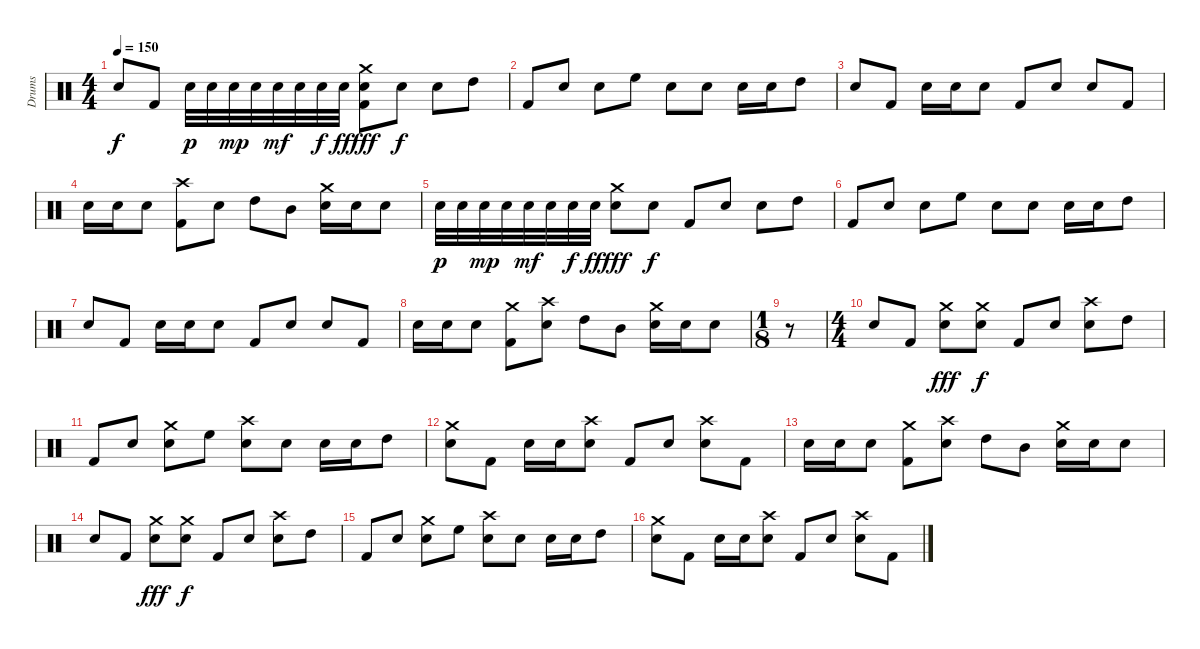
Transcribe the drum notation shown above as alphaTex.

\track ("Drums" "Drums") {instrument percussion}
\staff {score}
\articulation defaults
\ts (4 4)
\tempo 150
\clef neutral
\ks c "Electric Snare (hit)".8{dy f} "Kick (hit) 2".8 "Electric Snare (hit)".32{dy p} "Electric Snare (hit)".32 "Electric Snare (hit)".32{dy mp} "Electric Snare (hit)".32 "Electric Snare (hit)".32{dy mf} "Electric Snare (hit)".32 "Electric Snare (hit)".32{dy f} "Electric Snare (hit)".32{dy ff}
("Crash medium (hit)" "Electric Snare (hit)" "Kick (hit) 2").8{dy fff} "Electric Snare (hit)".8{dy f} "Electric Snare (hit)".8 "High Tom (hit)".8 |
"Kick (hit) 2".8 "Electric Snare (hit)".8 "Electric Snare (hit)".8 "High Floor Tom (hit)".8 "Electric Snare (hit)".8 "Electric Snare (hit)".8 "Electric Snare (hit)".16 "Electric Snare (hit)".16 "High Tom (hit)".8 |
"Electric Snare (hit)".8 "Kick (hit) 2".8 "Electric Snare (hit)".16 "Electric Snare (hit)".16 "Electric Snare (hit)".8 "Kick (hit) 2".8 "Electric Snare (hit)".8 "Electric Snare (hit)".8 "Kick (hit) 2".8 |
"Electric Snare (hit)".16 "Electric Snare (hit)".16 "Electric Snare (hit)".8 ("Crash high (hit)" "Kick (hit) 2").8 "Electric Snare (hit)".8 "High Tom (hit)".8 "Mid Tom (hit)".8 ("Crash medium (hit)" "Electric Snare (hit)").16 "Electric Snare (hit)".16 "Electric Snare (hit)".8 |
"Electric Snare (hit)".32{dy p} "Electric Snare (hit)".32 "Electric Snare (hit)".32{dy mp} "Electric Snare (hit)".32 "Electric Snare (hit)".32{dy mf} "Electric Snare (hit)".32 "Electric Snare (hit)".32{dy f} "Electric Snare (hit)".32{dy ff} ("Crash medium (hit)" "Electric Snare (hit)").8{dy fff} "Electric Snare (hit)".8{dy f} "Kick (hit) 2".8 "Electric Snare (hit)".8 "Electric Snare (hit)".8 "High Tom (hit)".8 |
"Kick (hit) 2".8 "Electric Snare (hit)".8 "Electric Snare (hit)".8 "High Floor Tom (hit)".8 "Electric Snare (hit)".8 "Electric Snare (hit)".8 "Electric Snare (hit)".16 "Electric Snare (hit)".16 "High Tom (hit)".8 |
"Electric Snare (hit)".8 "Kick (hit) 2".8 "Electric Snare (hit)".16 "Electric Snare (hit)".16 "Electric Snare (hit)".8 "Kick (hit) 2".8 "Electric Snare (hit)".8 "Electric Snare (hit)".8 "Kick (hit) 2".8 |
"Electric Snare (hit)".16 "Electric Snare (hit)".16 "Electric Snare (hit)".8 ("Crash medium (hit)" "Kick (hit) 2").8 ("Crash high (hit)" "Electric Snare (hit)").8 "High Tom (hit)".8 "Mid Tom (hit)".8 ("Crash medium (hit)" "Electric Snare (hit)").16 "Electric Snare (hit)".16 "Electric Snare (hit)".8 |
\ts (1 8)
r.8 |
\ts (4 4)
"Electric Snare (hit)".8 "Kick (hit) 2".8 ("Crash medium (hit)" "Electric Snare (hit)").8{dy fff} ("Crash medium (hit)" "Electric Snare (hit)").8{dy f} "Kick (hit) 2".8 "Electric Snare (hit)".8 ("Crash high (hit)" "Electric Snare (hit)").8 "High Tom (hit)".8 |
"Kick (hit) 2".8 "Electric Snare (hit)".8 ("Crash medium (hit)" "Electric Snare (hit)").8 "High Floor Tom (hit)".8 ("Crash high (hit)" "Electric Snare (hit)").8 "Electric Snare (hit)".8 "Electric Snare (hit)".16 "Electric Snare (hit)".16 "High Tom (hit)".8 |
("Crash medium (hit)" "Electric Snare (hit)").8 "Kick (hit) 2".8 "Electric Snare (hit)".16 "Electric Snare (hit)".16 ("Crash high (hit)" "Electric Snare (hit)").8 "Kick (hit) 2".8 "Electric Snare (hit)".8 ("Crash high (hit)" "Electric Snare (hit)").8 "Kick (hit) 2".8 |
"Electric Snare (hit)".16 "Electric Snare (hit)".16 "Electric Snare (hit)".8 ("Crash medium (hit)" "Kick (hit) 2").8 ("Crash high (hit)" "Electric Snare (hit)").8 "High Tom (hit)".8 "Mid Tom (hit)".8 ("Crash medium (hit)" "Electric Snare (hit)").16 "Electric Snare (hit)".16 "Electric Snare (hit)".8 |
"Electric Snare (hit)".8 "Kick (hit) 2".8 ("Crash medium (hit)" "Electric Snare (hit)").8{dy fff} ("Crash medium (hit)" "Electric Snare (hit)").8{dy f} "Kick (hit) 2".8 "Electric Snare (hit)".8 ("Crash high (hit)" "Electric Snare (hit)").8 "High Tom (hit)".8 |
"Kick (hit) 2".8 "Electric Snare (hit)".8 ("Crash medium (hit)" "Electric Snare (hit)").8 "High Floor Tom (hit)".8 ("Crash high (hit)" "Electric Snare (hit)").8 "Electric Snare (hit)".8 "Electric Snare (hit)".16 "Electric Snare (hit)".16 "High Tom (hit)".8 |
("Crash medium (hit)" "Electric Snare (hit)").8 "Kick (hit) 2".8 "Electric Snare (hit)".16 "Electric Snare (hit)".16 ("Crash high (hit)" "Electric Snare (hit)").8 "Kick (hit) 2".8 "Electric Snare (hit)".8 ("Crash high (hit)" "Electric Snare (hit)").8 "Kick (hit) 2".8
